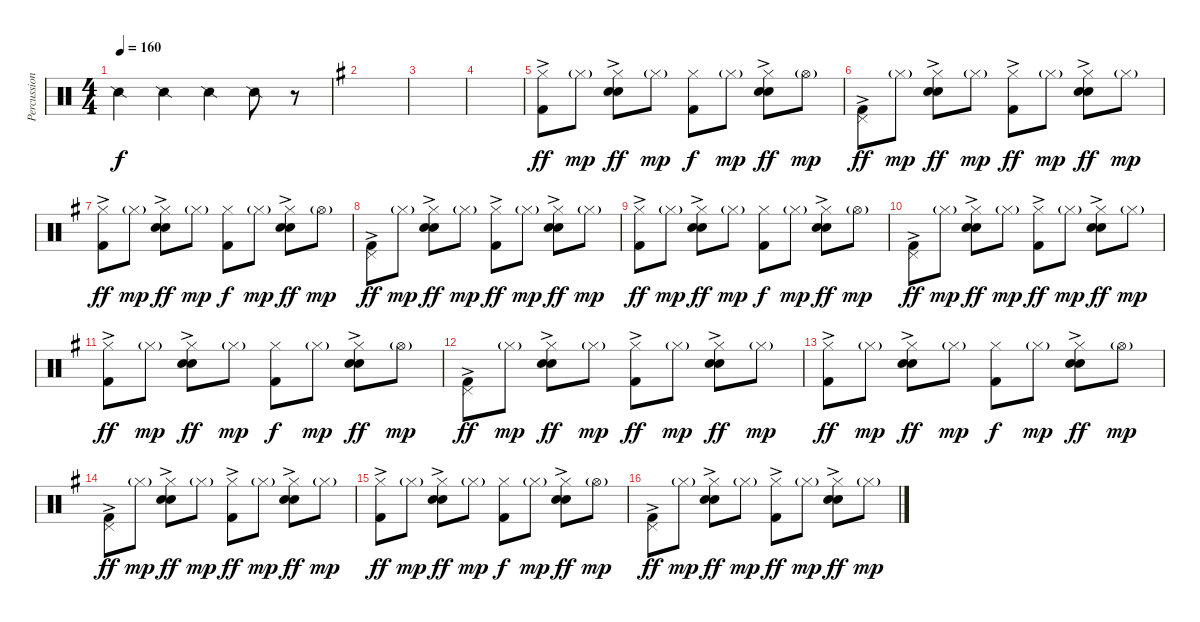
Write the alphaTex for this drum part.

\track ("Percussion" "Percussion") {instrument percussion}
\staff {score}
\articulation defaults
\ts (4 4)
\tempo 160
\clef neutral
\ks c "Snare (side stick) 2".4{dy f} "Snare (side stick) 2".4 "Snare (side stick) 2".4 "Snare (side stick) 2".8
r.8 |
\ks g
|
|
|
("Hi-Hat (closed)" "Kick (hit) 2"{ac}).8{dy ff} "Hi-Hat (closed)"{g}.8{dy mp} ("Hi-Hat (closed)" "Electric Snare (hit)"{ac} "Snare (hit) 2").8{dy ff} "Hi-Hat (closed)"{g}.8{dy mp} ("Hi-Hat (closed)" "Kick (hit) 2").8{dy f} "Hi-Hat (closed)"{g}.8{dy mp} ("Hi-Hat (closed)" "Electric Snare (hit)"{ac} "Snare (hit) 2").8{dy ff} "Hi-Hat (open)"{g}.8{dy mp} |
("Pedal Hi-Hat (hit)" "Kick (hit) 2"{ac}).8{dy ff} "Hi-Hat (closed)"{g}.8{dy mp} ("Hi-Hat (closed)" "Electric Snare (hit)"{ac} "Snare (hit) 2").8{dy ff} "Hi-Hat (closed)"{g}.8{dy mp} ("Hi-Hat (closed)" "Kick (hit) 2"{ac}).8{dy ff} "Hi-Hat (closed)"{g}.8{dy mp} ("Hi-Hat (closed)" "Electric Snare (hit)"{ac} "Snare (hit) 2").8{dy ff} "Hi-Hat (closed)"{g}.8{dy mp} |
("Hi-Hat (closed)" "Kick (hit) 2"{ac}).8{dy ff} "Hi-Hat (closed)"{g}.8{dy mp} ("Hi-Hat (closed)" "Electric Snare (hit)"{ac} "Snare (hit) 2").8{dy ff} "Hi-Hat (closed)"{g}.8{dy mp} ("Hi-Hat (closed)" "Kick (hit) 2").8{dy f} "Hi-Hat (closed)"{g}.8{dy mp} ("Hi-Hat (closed)" "Electric Snare (hit)"{ac} "Snare (hit) 2").8{dy ff} "Hi-Hat (open)"{g}.8{dy mp} |
("Pedal Hi-Hat (hit)" "Kick (hit) 2"{ac}).8{dy ff} "Hi-Hat (closed)"{g}.8{dy mp} ("Hi-Hat (closed)" "Electric Snare (hit)"{ac} "Snare (hit) 2").8{dy ff} "Hi-Hat (closed)"{g}.8{dy mp} ("Hi-Hat (closed)" "Kick (hit) 2"{ac}).8{dy ff} "Hi-Hat (closed)"{g}.8{dy mp} ("Hi-Hat (closed)" "Electric Snare (hit)"{ac} "Snare (hit) 2").8{dy ff} "Hi-Hat (closed)"{g}.8{dy mp} |
("Hi-Hat (closed)" "Kick (hit) 2"{ac}).8{dy ff} "Hi-Hat (closed)"{g}.8{dy mp} ("Hi-Hat (closed)" "Electric Snare (hit)"{ac} "Snare (hit) 2").8{dy ff} "Hi-Hat (closed)"{g}.8{dy mp} ("Hi-Hat (closed)" "Kick (hit) 2").8{dy f} "Hi-Hat (closed)"{g}.8{dy mp} ("Hi-Hat (closed)" "Electric Snare (hit)"{ac} "Snare (hit) 2").8{dy ff} "Hi-Hat (open)"{g}.8{dy mp} |
("Pedal Hi-Hat (hit)" "Kick (hit) 2"{ac}).8{dy ff} "Hi-Hat (closed)"{g}.8{dy mp} ("Hi-Hat (closed)" "Electric Snare (hit)"{ac} "Snare (hit) 2").8{dy ff} "Hi-Hat (closed)"{g}.8{dy mp} ("Hi-Hat (closed)" "Kick (hit) 2"{ac}).8{dy ff} "Hi-Hat (closed)"{g}.8{dy mp} ("Hi-Hat (closed)" "Electric Snare (hit)"{ac} "Snare (hit) 2").8{dy ff} "Hi-Hat (closed)"{g}.8{dy mp} |
("Hi-Hat (closed)" "Kick (hit) 2"{ac}).8{dy ff} "Hi-Hat (closed)"{g}.8{dy mp} ("Hi-Hat (closed)" "Electric Snare (hit)"{ac} "Snare (hit) 2").8{dy ff} "Hi-Hat (closed)"{g}.8{dy mp} ("Hi-Hat (closed)" "Kick (hit) 2").8{dy f} "Hi-Hat (closed)"{g}.8{dy mp} ("Hi-Hat (closed)" "Electric Snare (hit)"{ac} "Snare (hit) 2").8{dy ff} "Hi-Hat (open)"{g}.8{dy mp} |
("Pedal Hi-Hat (hit)" "Kick (hit) 2"{ac}).8{dy ff} "Hi-Hat (closed)"{g}.8{dy mp} ("Hi-Hat (closed)" "Electric Snare (hit)"{ac} "Snare (hit) 2").8{dy ff} "Hi-Hat (closed)"{g}.8{dy mp} ("Hi-Hat (closed)" "Kick (hit) 2"{ac}).8{dy ff} "Hi-Hat (closed)"{g}.8{dy mp} ("Hi-Hat (closed)" "Electric Snare (hit)"{ac} "Snare (hit) 2").8{dy ff} "Hi-Hat (closed)"{g}.8{dy mp} |
("Hi-Hat (closed)" "Kick (hit) 2"{ac}).8{dy ff} "Hi-Hat (closed)"{g}.8{dy mp} ("Hi-Hat (closed)" "Electric Snare (hit)"{ac} "Snare (hit) 2").8{dy ff} "Hi-Hat (closed)"{g}.8{dy mp} ("Hi-Hat (closed)" "Kick (hit) 2").8{dy f} "Hi-Hat (closed)"{g}.8{dy mp} ("Hi-Hat (closed)" "Electric Snare (hit)"{ac} "Snare (hit) 2").8{dy ff} "Hi-Hat (open)"{g}.8{dy mp} |
("Pedal Hi-Hat (hit)" "Kick (hit) 2"{ac}).8{dy ff} "Hi-Hat (closed)"{g}.8{dy mp} ("Hi-Hat (closed)" "Electric Snare (hit)"{ac} "Snare (hit) 2").8{dy ff} "Hi-Hat (closed)"{g}.8{dy mp} ("Hi-Hat (closed)" "Kick (hit) 2"{ac}).8{dy ff} "Hi-Hat (closed)"{g}.8{dy mp} ("Hi-Hat (closed)" "Electric Snare (hit)"{ac} "Snare (hit) 2").8{dy ff} "Hi-Hat (closed)"{g}.8{dy mp} |
("Hi-Hat (closed)" "Kick (hit) 2"{ac}).8{dy ff} "Hi-Hat (closed)"{g}.8{dy mp} ("Hi-Hat (closed)" "Electric Snare (hit)"{ac} "Snare (hit) 2").8{dy ff} "Hi-Hat (closed)"{g}.8{dy mp} ("Hi-Hat (closed)" "Kick (hit) 2").8{dy f} "Hi-Hat (closed)"{g}.8{dy mp} ("Hi-Hat (closed)" "Electric Snare (hit)"{ac} "Snare (hit) 2").8{dy ff} "Hi-Hat (open)"{g}.8{dy mp} |
("Pedal Hi-Hat (hit)" "Kick (hit) 2"{ac}).8{dy ff} "Hi-Hat (closed)"{g}.8{dy mp} ("Hi-Hat (closed)" "Electric Snare (hit)"{ac} "Snare (hit) 2").8{dy ff} "Hi-Hat (closed)"{g}.8{dy mp} ("Hi-Hat (closed)" "Kick (hit) 2"{ac}).8{dy ff} "Hi-Hat (closed)"{g}.8{dy mp} ("Hi-Hat (closed)" "Electric Snare (hit)"{ac} "Snare (hit) 2").8{dy ff} "Hi-Hat (closed)"{g}.8{dy mp}
